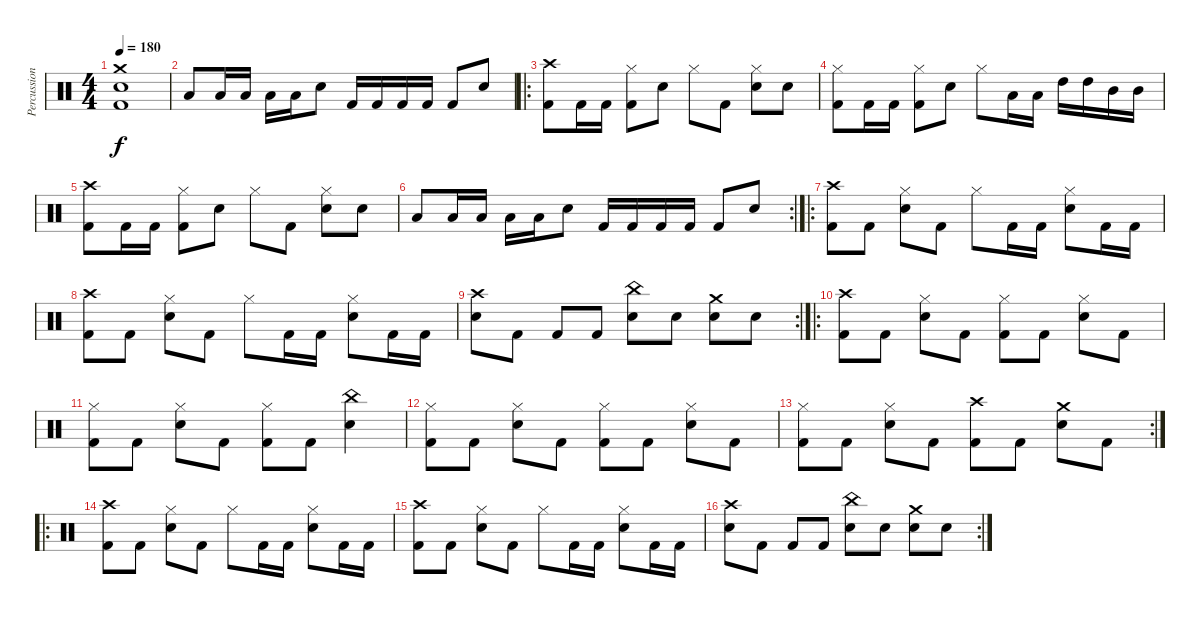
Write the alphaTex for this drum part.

\track ("Percussion" "Percussion") {instrument percussion}
\staff {score}
\articulation defaults
\ts (4 4)
\tempo 180
\clef neutral
\ks c
("Crash medium (hit)" "Snare (hit) 2" "Kick (hit) 2").1{dy f} |
"Low Tom (hit)".8 "Low Tom (hit)".16 "Low Tom (hit)".16 "Low Tom (hit)".16 "Low Tom (hit)".16 "Snare (hit) 2".8 "Kick (hit) 2".16 "Kick (hit) 2".16 "Kick (hit) 2".16 "Kick (hit) 2".16 "Kick (hit) 2".8 "Snare (hit) 2".8 |
\ro
("Crash high (hit)" "Kick (hit) 2").8 "Kick (hit) 2".16 "Kick (hit) 2".16 ("Hi-Hat (closed)" "Kick (hit) 2").8 "Snare (hit) 2".8 "Hi-Hat (closed)".8 "Kick (hit) 2".8 ("Hi-Hat (closed)" "Snare (hit) 2").8 "Snare (hit) 2".8 |
("Hi-Hat (closed)" "Kick (hit) 2").8 "Kick (hit) 2".16 "Kick (hit) 2".16 ("Hi-Hat (closed)" "Kick (hit) 2").8 "Snare (hit) 2".8 "Hi-Hat (closed)".8 "Low Tom (hit)".16 "Low Tom (hit)".16 "High Tom (hit)".16 "High Tom (hit)".16 "Mid Tom (hit)".16 "Mid Tom (hit)".16 |
("Crash high (hit)" "Kick (hit) 2").8 "Kick (hit) 2".16 "Kick (hit) 2".16 ("Hi-Hat (closed)" "Kick (hit) 2").8 "Snare (hit) 2".8 "Hi-Hat (closed)".8 "Kick (hit) 2".8 ("Hi-Hat (closed)" "Snare (hit) 2").8 "Snare (hit) 2".8 |
\rc 2 "Low Tom (hit)".8 "Low Tom (hit)".16 "Low Tom (hit)".16 "Low Tom (hit)".16 "Low Tom (hit)".16 "Snare (hit) 2".8 "Kick (hit) 2".16 "Kick (hit) 2".16 "Kick (hit) 2".16 "Kick (hit) 2".16 "Kick (hit) 2".8 "Snare (hit) 2".8
|
\ro
("Crash high (hit)" "Kick (hit) 2").8 "Kick (hit) 2".8 ("Hi-Hat (closed)" "Snare (hit) 2").8 "Kick (hit) 2".8 "Hi-Hat (closed)".8 "Kick (hit) 2".16 "Kick (hit) 2".16 ("Hi-Hat (closed)" "Snare (hit) 2").8 "Kick (hit) 2".16 "Kick (hit) 2".16 |
("Crash high (hit)" "Kick (hit) 2").8 "Kick (hit) 2".8 ("Hi-Hat (closed)" "Snare (hit) 2").8 "Kick (hit) 2".8 "Hi-Hat (closed)".8 "Kick (hit) 2".16 "Kick (hit) 2".16 ("Hi-Hat (closed)" "Snare (hit) 2").8 "Kick (hit) 2".16 "Kick (hit) 2".16 |
\rc 2
("Crash high (hit)" "Snare (hit) 2").8 "Kick (hit) 2".8 "Kick (hit) 2".8 "Kick (hit) 2".8 ("China (hit)" "Snare (hit) 2").8 "Snare (hit) 2".8 ("Crash medium (hit)" "Snare (hit) 2").8 "Snare (hit) 2".8 |
\ro
("Crash high (hit)" "Kick (hit) 2").8 "Kick (hit) 2".8 ("Hi-Hat (closed)" "Snare (hit) 2").8 "Kick (hit) 2".8 ("Hi-Hat (closed)" "Kick (hit) 2").8 "Kick (hit) 2".8 ("Hi-Hat (closed)" "Snare (hit) 2").8 "Kick (hit) 2".8 |
("Hi-Hat (closed)" "Kick (hit) 2").8 "Kick (hit) 2".8 ("Hi-Hat (closed)" "Snare (hit) 2").8 "Kick (hit) 2".8 ("Hi-Hat (closed)" "Kick (hit) 2").8 "Kick (hit) 2".8 ("China (hit)" "Snare (hit) 2").4 |
("Hi-Hat (closed)" "Kick (hit) 2").8 "Kick (hit) 2".8 ("Hi-Hat (closed)" "Snare (hit) 2").8 "Kick (hit) 2".8 ("Hi-Hat (closed)" "Kick (hit) 2").8 "Kick (hit) 2".8 ("Hi-Hat (closed)" "Snare (hit) 2").8 "Kick (hit) 2".8 |
\rc 2
("Hi-Hat (closed)" "Kick (hit) 2").8 "Kick (hit) 2".8 ("Hi-Hat (closed)" "Snare (hit) 2").8 "Kick (hit) 2".8 ("Crash high (hit)" "Kick (hit) 2").8 "Kick (hit) 2".8 ("Crash medium (hit)" "Snare (hit) 2").8 "Kick (hit) 2".8 |
\ro
("Crash high (hit)" "Kick (hit) 2").8 "Kick (hit) 2".8 ("Hi-Hat (closed)" "Snare (hit) 2").8 "Kick (hit) 2".8 "Hi-Hat (closed)".8 "Kick (hit) 2".16 "Kick (hit) 2".16 ("Hi-Hat (closed)" "Snare (hit) 2").8 "Kick (hit) 2".16 "Kick (hit) 2".16 |
("Crash high (hit)" "Kick (hit) 2").8 "Kick (hit) 2".8 ("Hi-Hat (closed)" "Snare (hit) 2").8 "Kick (hit) 2".8 "Hi-Hat (closed)".8 "Kick (hit) 2".16 "Kick (hit) 2".16 ("Hi-Hat (closed)" "Snare (hit) 2").8 "Kick (hit) 2".16 "Kick (hit) 2".16 |
\rc 2
("Crash high (hit)" "Snare (hit) 2").8 "Kick (hit) 2".8 "Kick (hit) 2".8 "Kick (hit) 2".8 ("China (hit)" "Snare (hit) 2").8 "Snare (hit) 2".8 ("Crash medium (hit)" "Snare (hit) 2").8 "Snare (hit) 2".8
